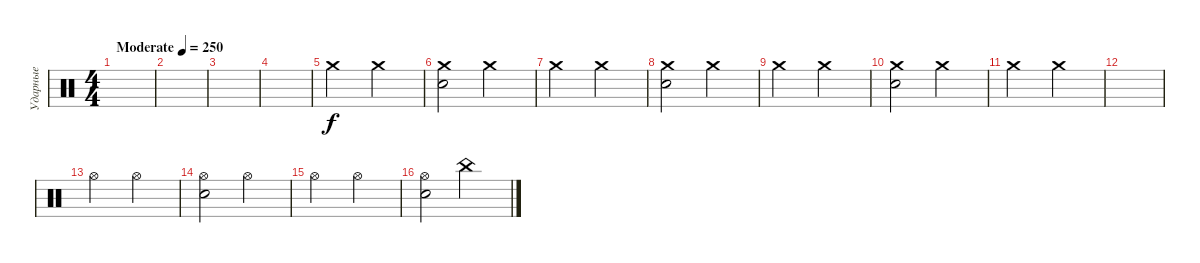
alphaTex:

\track ("Ударные" "Ударные") {instrument percussion}
\staff {score}
\articulation defaults
\ts (4 4)
\tempo (250 "Moderate")
\clef neutral
\ks c
|
|
|
|
"Crash medium (hit)".2 "Crash medium (hit)".2 |
("Snare (hit) 2" "Crash medium (hit)").2 "Crash medium (hit)".2 |
"Crash medium (hit)".2 "Crash medium (hit)".2 |
("Snare (hit) 2" "Crash medium (hit)").2 "Crash medium (hit)".2 |
"Crash medium (hit)".2 "Crash medium (hit)".2 |
("Snare (hit) 2" "Crash medium (hit)").2 "Crash medium (hit)".2 |
"Crash medium (hit)".2 "Crash medium (hit)".2 |
|
"Hi-Hat (open)".2 "Hi-Hat (open)".2 |
("Snare (hit) 2" "Hi-Hat (open)").2 "Hi-Hat (open)".2 |
"Hi-Hat (open)".2 "Hi-Hat (open)".2 |
("Snare (hit) 2" "Hi-Hat (open)").2 "China (hit)".2
